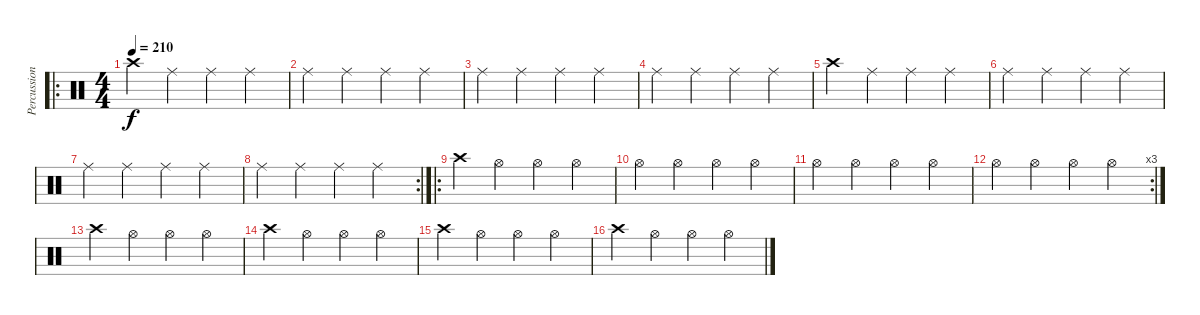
\track ("Percussion" "Percussion") {instrument percussion}
\staff {score}
\articulation defaults
\ro
\ts (4 4)
\tempo 210
\clef neutral
\ks c "Crash high (hit)".4{dy f} "Ride (middle)".4 "Ride (middle)".4 "Ride (middle)".4
|
"Ride (middle)".4 "Ride (middle)".4 "Ride (middle)".4 "Ride (middle)".4 |
"Ride (middle)".4 "Ride (middle)".4 "Ride (middle)".4 "Ride (middle)".4 |
"Ride (middle)".4 "Ride (middle)".4 "Ride (middle)".4 "Ride (middle)".4 |
"Crash high (hit)".4 "Ride (middle)".4 "Ride (middle)".4 "Ride (middle)".4 |
"Ride (middle)".4 "Ride (middle)".4 "Ride (middle)".4 "Ride (middle)".4 |
"Ride (middle)".4 "Ride (middle)".4 "Ride (middle)".4 "Ride (middle)".4 |
\rc 2 "Ride (middle)".4 "Ride (middle)".4 "Ride (middle)".4 "Ride (middle)".4
|
\ro "Crash high (hit)".4 "Hi-Hat (open)".4 "Hi-Hat (open)".4 "Hi-Hat (open)".4
|
"Hi-Hat (open)".4 "Hi-Hat (open)".4 "Hi-Hat (open)".4 "Hi-Hat (open)".4 |
"Hi-Hat (open)".4 "Hi-Hat (open)".4 "Hi-Hat (open)".4 "Hi-Hat (open)".4 |
\rc 3 "Hi-Hat (open)".4 "Hi-Hat (open)".4 "Hi-Hat (open)".4 "Hi-Hat (open)".4
|
"Crash high (hit)".4 "Hi-Hat (open)".4 "Hi-Hat (open)".4 "Hi-Hat (open)".4 |
"Crash high (hit)".4 "Hi-Hat (open)".4 "Hi-Hat (open)".4 "Hi-Hat (open)".4 |
"Crash high (hit)".4 "Hi-Hat (open)".4 "Hi-Hat (open)".4 "Hi-Hat (open)".4 |
"Crash high (hit)".4 "Hi-Hat (open)".4 "Hi-Hat (open)".4 "Hi-Hat (open)".4
